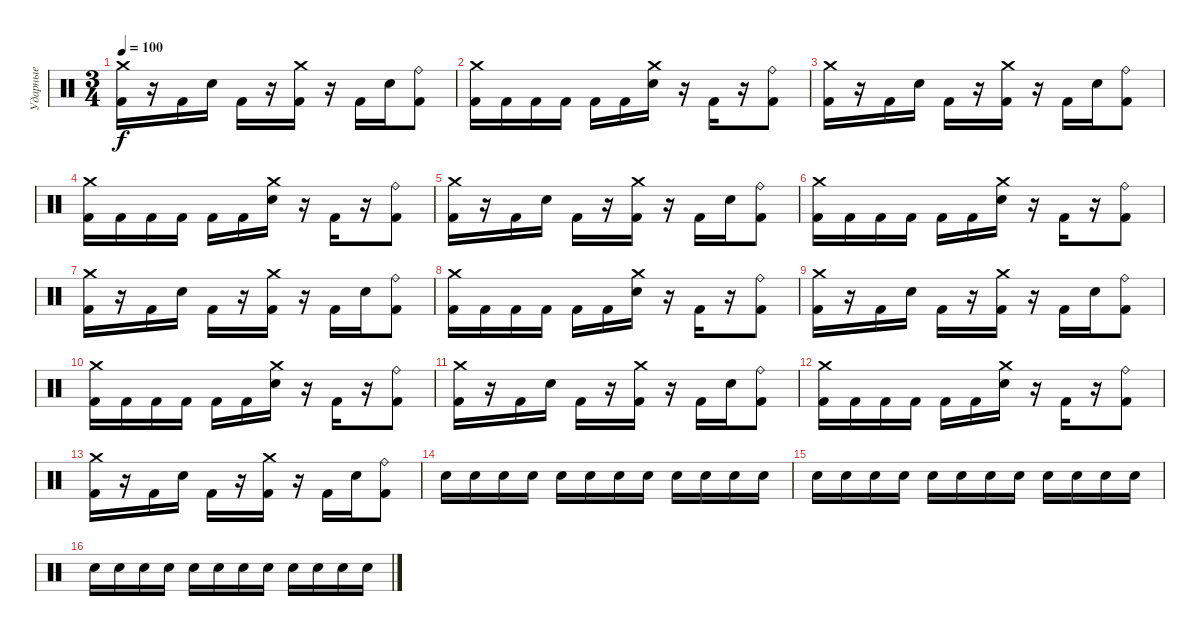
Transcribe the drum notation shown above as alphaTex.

\track ("Ударные" "Ударные") {instrument percussion}
\staff {score}
\articulation defaults
\ts (3 4)
\tempo 100
\clef neutral
\ks c
("Crash medium (hit)" "Kick (hit) 2").16{dy f} r.16 "Kick (hit) 2".16 "Electric Snare (hit)".16 "Kick (hit) 2".16 r.16 ("Crash medium (hit)" "Kick (hit) 2").16 r.16 "Kick (hit) 2".16 "Electric Snare (hit)".16 ("Ride (bell)" "Kick (hit) 2").8 |
("Crash medium (hit)" "Kick (hit) 2").16 "Kick (hit) 2".16 "Kick (hit) 2".16 "Kick (hit) 2".16 "Kick (hit) 2".16 "Kick (hit) 2".16 ("Crash medium (hit)" "Electric Snare (hit)").16 r.16 "Kick (hit) 2".16 r.16 ("Ride (bell)" "Kick (hit) 2").8 |
("Crash medium (hit)" "Kick (hit) 2").16 r.16 "Kick (hit) 2".16 "Electric Snare (hit)".16 "Kick (hit) 2".16 r.16 ("Crash medium (hit)" "Kick (hit) 2").16 r.16 "Kick (hit) 2".16 "Electric Snare (hit)".16 ("Ride (bell)" "Kick (hit) 2").8 |
("Crash medium (hit)" "Kick (hit) 2").16 "Kick (hit) 2".16 "Kick (hit) 2".16 "Kick (hit) 2".16 "Kick (hit) 2".16 "Kick (hit) 2".16 ("Crash medium (hit)" "Electric Snare (hit)").16 r.16 "Kick (hit) 2".16 r.16 ("Ride (bell)" "Kick (hit) 2").8 |
("Crash medium (hit)" "Kick (hit) 2").16 r.16 "Kick (hit) 2".16 "Electric Snare (hit)".16 "Kick (hit) 2".16 r.16 ("Crash medium (hit)" "Kick (hit) 2").16 r.16 "Kick (hit) 2".16 "Electric Snare (hit)".16 ("Ride (bell)" "Kick (hit) 2").8 |
("Crash medium (hit)" "Kick (hit) 2").16 "Kick (hit) 2".16 "Kick (hit) 2".16 "Kick (hit) 2".16 "Kick (hit) 2".16 "Kick (hit) 2".16 ("Crash medium (hit)" "Electric Snare (hit)").16 r.16 "Kick (hit) 2".16 r.16 ("Ride (bell)" "Kick (hit) 2").8 |
("Crash medium (hit)" "Kick (hit) 2").16 r.16 "Kick (hit) 2".16 "Electric Snare (hit)".16 "Kick (hit) 2".16 r.16 ("Crash medium (hit)" "Kick (hit) 2").16 r.16 "Kick (hit) 2".16 "Electric Snare (hit)".16 ("Ride (bell)" "Kick (hit) 2").8 |
("Crash medium (hit)" "Kick (hit) 2").16 "Kick (hit) 2".16 "Kick (hit) 2".16 "Kick (hit) 2".16 "Kick (hit) 2".16 "Kick (hit) 2".16 ("Crash medium (hit)" "Electric Snare (hit)").16 r.16 "Kick (hit) 2".16 r.16 ("Ride (bell)" "Kick (hit) 2").8 |
("Crash medium (hit)" "Kick (hit) 2").16 r.16 "Kick (hit) 2".16 "Electric Snare (hit)".16 "Kick (hit) 2".16 r.16 ("Crash medium (hit)" "Kick (hit) 2").16 r.16 "Kick (hit) 2".16 "Electric Snare (hit)".16 ("Ride (bell)" "Kick (hit) 2").8 |
("Crash medium (hit)" "Kick (hit) 2").16 "Kick (hit) 2".16 "Kick (hit) 2".16 "Kick (hit) 2".16 "Kick (hit) 2".16 "Kick (hit) 2".16 ("Crash medium (hit)" "Electric Snare (hit)").16 r.16 "Kick (hit) 2".16 r.16 ("Ride (bell)" "Kick (hit) 2").8 |
("Crash medium (hit)" "Kick (hit) 2").16 r.16 "Kick (hit) 2".16 "Electric Snare (hit)".16 "Kick (hit) 2".16 r.16 ("Crash medium (hit)" "Kick (hit) 2").16 r.16 "Kick (hit) 2".16 "Electric Snare (hit)".16 ("Ride (bell)" "Kick (hit) 2").8 |
("Crash medium (hit)" "Kick (hit) 2").16 "Kick (hit) 2".16 "Kick (hit) 2".16 "Kick (hit) 2".16 "Kick (hit) 2".16 "Kick (hit) 2".16 ("Crash medium (hit)" "Electric Snare (hit)").16 r.16 "Kick (hit) 2".16 r.16 ("Ride (bell)" "Kick (hit) 2").8 |
("Crash medium (hit)" "Kick (hit) 2").16 r.16 "Kick (hit) 2".16 "Electric Snare (hit)".16 "Kick (hit) 2".16 r.16 ("Crash medium (hit)" "Kick (hit) 2").16 r.16 "Kick (hit) 2".16 "Electric Snare (hit)".16 ("Ride (bell)" "Kick (hit) 2").8 |
"Electric Snare (hit)".16{volume 0} "Electric Snare (hit)".16{volume 13} "Electric Snare (hit)".16 "Electric Snare (hit)".16 "Electric Snare (hit)".16 "Electric Snare (hit)".16 "Electric Snare (hit)".16 "Electric Snare (hit)".16 "Electric Snare (hit)".16 "Electric Snare (hit)".16 "Electric Snare (hit)".16 "Electric Snare (hit)".16 |
"Electric Snare (hit)".16 "Electric Snare (hit)".16 "Electric Snare (hit)".16 "Electric Snare (hit)".16 "Electric Snare (hit)".16 "Electric Snare (hit)".16 "Electric Snare (hit)".16 "Electric Snare (hit)".16 "Electric Snare (hit)".16 "Electric Snare (hit)".16 "Electric Snare (hit)".16 "Electric Snare (hit)".16 |
"Electric Snare (hit)".16 "Electric Snare (hit)".16 "Electric Snare (hit)".16 "Electric Snare (hit)".16 "Electric Snare (hit)".16 "Electric Snare (hit)".16 "Electric Snare (hit)".16 "Electric Snare (hit)".16 "Electric Snare (hit)".16 "Electric Snare (hit)".16 "Electric Snare (hit)".16 "Electric Snare (hit)".16
